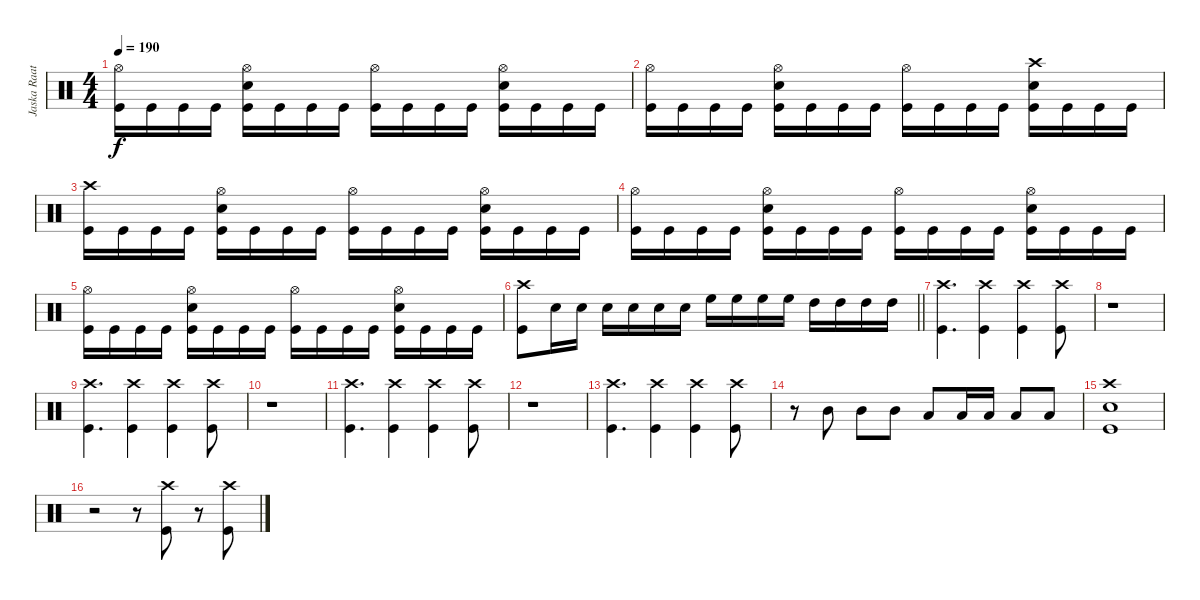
\track ("Jaska Raatikainen" "Jaska Raat") {instrument percussion}
\staff {score}
\articulation defaults
\ts (4 4)
\tempo 190
\clef neutral
\ks c
("Hi-Hat (open)" "Kick (hit)").16{dy f} "Kick (hit)".16 "Kick (hit)".16 "Kick (hit)".16 ("Hi-Hat (open)" "Snare (hit) 2" "Kick (hit)").16 "Kick (hit)".16 "Kick (hit)".16 "Kick (hit)".16 ("Hi-Hat (open)" "Kick (hit)").16 "Kick (hit)".16 "Kick (hit)".16 "Kick (hit)".16 ("Hi-Hat (open)" "Snare (hit) 2" "Kick (hit)").16 "Kick (hit)".16 "Kick (hit)".16 "Kick (hit)".16 |
("Hi-Hat (open)" "Kick (hit)").16 "Kick (hit)".16 "Kick (hit)".16 "Kick (hit)".16 ("Hi-Hat (open)" "Snare (hit) 2" "Kick (hit)").16 "Kick (hit)".16 "Kick (hit)".16 "Kick (hit)".16 ("Hi-Hat (open)" "Kick (hit)").16 "Kick (hit)".16 "Kick (hit)".16 "Kick (hit)".16 ("Crash high (hit)" "Snare (hit) 2" "Kick (hit)").16 "Kick (hit)".16 "Kick (hit)".16 "Kick (hit)".16 |
("Crash high (hit)" "Kick (hit)").16 "Kick (hit)".16 "Kick (hit)".16 "Kick (hit)".16 ("Hi-Hat (open)" "Snare (hit) 2" "Kick (hit)").16 "Kick (hit)".16 "Kick (hit)".16 "Kick (hit)".16 ("Hi-Hat (open)" "Kick (hit)").16 "Kick (hit)".16 "Kick (hit)".16 "Kick (hit)".16 ("Hi-Hat (open)" "Snare (hit) 2" "Kick (hit)").16 "Kick (hit)".16 "Kick (hit)".16 "Kick (hit)".16 |
("Hi-Hat (open)" "Kick (hit)").16 "Kick (hit)".16 "Kick (hit)".16 "Kick (hit)".16 ("Hi-Hat (open)" "Snare (hit) 2" "Kick (hit)").16 "Kick (hit)".16 "Kick (hit)".16 "Kick (hit)".16 ("Hi-Hat (open)" "Kick (hit)").16 "Kick (hit)".16 "Kick (hit)".16 "Kick (hit)".16 ("Hi-Hat (open)" "Snare (hit) 2" "Kick (hit)").16 "Kick (hit)".16 "Kick (hit)".16 "Kick (hit)".16 |
("Hi-Hat (open)" "Kick (hit)").16 "Kick (hit)".16 "Kick (hit)".16 "Kick (hit)".16 ("Hi-Hat (open)" "Snare (hit) 2" "Kick (hit)").16 "Kick (hit)".16 "Kick (hit)".16 "Kick (hit)".16 ("Hi-Hat (open)" "Kick (hit)").16 "Kick (hit)".16 "Kick (hit)".16 "Kick (hit)".16 ("Hi-Hat (open)" "Snare (hit) 2" "Kick (hit)").16 "Kick (hit)".16 "Kick (hit)".16 "Kick (hit)".16 |
\barLineRight lightlight
("Crash high (hit)" "Kick (hit)").8 "Snare (hit) 2".16 "Snare (hit) 2".16 "Snare (hit) 2".16 "Snare (hit) 2".16 "Snare (hit) 2".16 "Snare (hit) 2".16 "High Floor Tom (hit)".16 "High Floor Tom (hit)".16 "High Floor Tom (hit)".16 "High Floor Tom (hit)".16 "High Tom (hit)".16 "High Tom (hit)".16 "High Tom (hit)".16 "High Tom (hit)".16 |
("Crash high (hit)" "Kick (hit)").4{d} ("Crash high (hit)" "Kick (hit)").4 ("Crash high (hit)" "Kick (hit)").4 ("Crash high (hit)" "Kick (hit)").8 |
r.1 |
("Crash high (hit)" "Kick (hit)").4{d} ("Crash high (hit)" "Kick (hit)").4 ("Crash high (hit)" "Kick (hit)").4 ("Crash high (hit)" "Kick (hit)").8 |
r.1 |
("Crash high (hit)" "Kick (hit)").4{d} ("Crash high (hit)" "Kick (hit)").4 ("Crash high (hit)" "Kick (hit)").4 ("Crash high (hit)" "Kick (hit)").8 |
r.1 |
("Crash high (hit)" "Kick (hit)").4{d} ("Crash high (hit)" "Kick (hit)").4 ("Crash high (hit)" "Kick (hit)").4 ("Crash high (hit)" "Kick (hit)").8 |
r.8 "Mid Tom (hit)".8 "Mid Tom (hit)".8 "Mid Tom (hit)".8 "Low Tom (hit)".8 "Low Tom (hit)".16 "Low Tom (hit)".16 "Low Tom (hit)".8 "Low Tom (hit)".8 |
("Crash high (hit)" "Snare (hit) 2" "Kick (hit)").1 |
r.2 r.8 ("Crash high (hit)" "Kick (hit)").8 r.8 ("Crash high (hit)" "Kick (hit)").8
